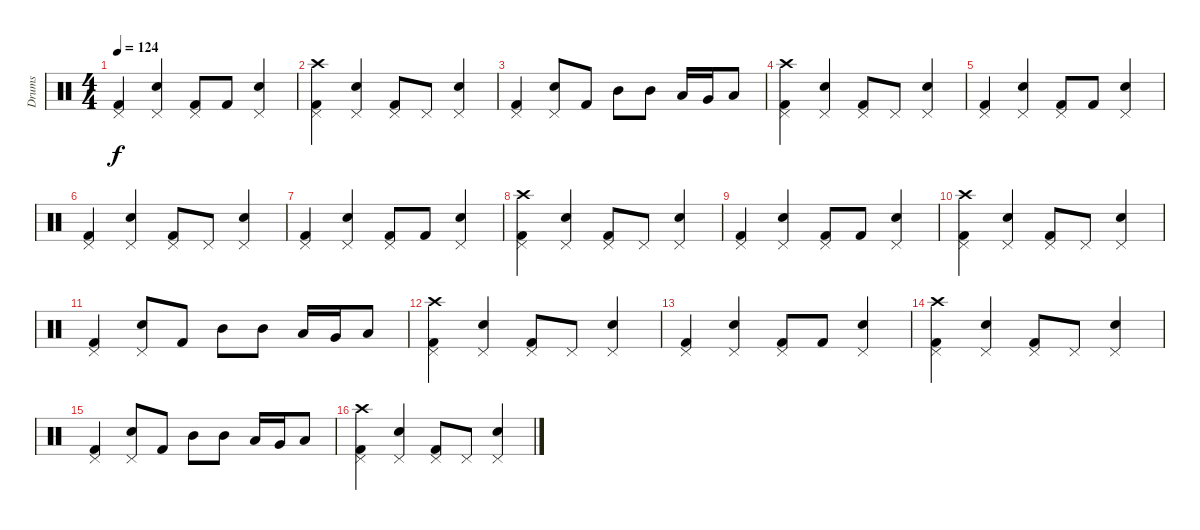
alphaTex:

\track ("Drums" "Drums") {instrument percussion}
\staff {score}
\articulation defaults
\ts (4 4)
\tempo 124
\clef neutral
\ks c
("Kick (hit) 2" "Pedal Hi-Hat (hit)").4{dy f} ("Snare (hit) 2" "Pedal Hi-Hat (hit)").4 ("Kick (hit) 2" "Pedal Hi-Hat (hit)").8 "Kick (hit) 2".8 ("Snare (hit) 2" "Pedal Hi-Hat (hit)").4 |
("Kick (hit) 2" "Pedal Hi-Hat (hit)" "Crash high (hit)").4 ("Snare (hit) 2" "Pedal Hi-Hat (hit)").4 ("Kick (hit) 2" "Pedal Hi-Hat (hit)").8 "Pedal Hi-Hat (hit)".8 ("Snare (hit) 2" "Pedal Hi-Hat (hit)").4 |
("Kick (hit) 2" "Pedal Hi-Hat (hit)").4 ("Snare (hit) 2" "Pedal Hi-Hat (hit)").8 "Kick (hit) 2".8 "Mid Tom (hit)".8 "Mid Tom (hit)".8 "Low Tom (hit)".16 "Very Low Tom (hit)".16 "Low Floor Tom (hit)".8 |
("Kick (hit) 2" "Pedal Hi-Hat (hit)" "Crash high (hit)").4 ("Snare (hit) 2" "Pedal Hi-Hat (hit)").4 ("Kick (hit) 2" "Pedal Hi-Hat (hit)").8 "Pedal Hi-Hat (hit)".8 ("Snare (hit) 2" "Pedal Hi-Hat (hit)").4 |
("Kick (hit) 2" "Pedal Hi-Hat (hit)").4 ("Snare (hit) 2" "Pedal Hi-Hat (hit)").4 ("Kick (hit) 2" "Pedal Hi-Hat (hit)").8 "Kick (hit) 2".8 ("Snare (hit) 2" "Pedal Hi-Hat (hit)").4 |
("Kick (hit) 2" "Pedal Hi-Hat (hit)").4 ("Snare (hit) 2" "Pedal Hi-Hat (hit)").4 ("Kick (hit) 2" "Pedal Hi-Hat (hit)").8 "Pedal Hi-Hat (hit)".8 ("Snare (hit) 2" "Pedal Hi-Hat (hit)").4 |
("Kick (hit) 2" "Pedal Hi-Hat (hit)").4 ("Snare (hit) 2" "Pedal Hi-Hat (hit)").4 ("Kick (hit) 2" "Pedal Hi-Hat (hit)").8 "Kick (hit) 2".8 ("Snare (hit) 2" "Pedal Hi-Hat (hit)").4 |
("Kick (hit) 2" "Pedal Hi-Hat (hit)" "Crash high (hit)").4 ("Snare (hit) 2" "Pedal Hi-Hat (hit)").4 ("Kick (hit) 2" "Pedal Hi-Hat (hit)").8 "Pedal Hi-Hat (hit)".8 ("Snare (hit) 2" "Pedal Hi-Hat (hit)").4 |
("Kick (hit) 2" "Pedal Hi-Hat (hit)").4 ("Snare (hit) 2" "Pedal Hi-Hat (hit)").4 ("Kick (hit) 2" "Pedal Hi-Hat (hit)").8 "Kick (hit) 2".8 ("Snare (hit) 2" "Pedal Hi-Hat (hit)").4 |
("Kick (hit) 2" "Pedal Hi-Hat (hit)" "Crash high (hit)").4 ("Snare (hit) 2" "Pedal Hi-Hat (hit)").4 ("Kick (hit) 2" "Pedal Hi-Hat (hit)").8 "Pedal Hi-Hat (hit)".8 ("Snare (hit) 2" "Pedal Hi-Hat (hit)").4 |
("Kick (hit) 2" "Pedal Hi-Hat (hit)").4 ("Snare (hit) 2" "Pedal Hi-Hat (hit)").8 "Kick (hit) 2".8 "Mid Tom (hit)".8 "Mid Tom (hit)".8 "Low Tom (hit)".16 "Very Low Tom (hit)".16 "Low Floor Tom (hit)".8 |
("Kick (hit) 2" "Pedal Hi-Hat (hit)" "Crash high (hit)").4 ("Snare (hit) 2" "Pedal Hi-Hat (hit)").4 ("Kick (hit) 2" "Pedal Hi-Hat (hit)").8 "Pedal Hi-Hat (hit)".8 ("Snare (hit) 2" "Pedal Hi-Hat (hit)").4 |
("Kick (hit) 2" "Pedal Hi-Hat (hit)").4 ("Snare (hit) 2" "Pedal Hi-Hat (hit)").4 ("Kick (hit) 2" "Pedal Hi-Hat (hit)").8 "Kick (hit) 2".8 ("Snare (hit) 2" "Pedal Hi-Hat (hit)").4 |
("Kick (hit) 2" "Pedal Hi-Hat (hit)" "Crash high (hit)").4 ("Snare (hit) 2" "Pedal Hi-Hat (hit)").4 ("Kick (hit) 2" "Pedal Hi-Hat (hit)").8 "Pedal Hi-Hat (hit)".8 ("Snare (hit) 2" "Pedal Hi-Hat (hit)").4 |
("Kick (hit) 2" "Pedal Hi-Hat (hit)").4 ("Snare (hit) 2" "Pedal Hi-Hat (hit)").8 "Kick (hit) 2".8 "Mid Tom (hit)".8 "Mid Tom (hit)".8 "Low Tom (hit)".16 "Very Low Tom (hit)".16 "Low Floor Tom (hit)".8 |
("Kick (hit) 2" "Pedal Hi-Hat (hit)" "Crash high (hit)").4 ("Snare (hit) 2" "Pedal Hi-Hat (hit)").4 ("Kick (hit) 2" "Pedal Hi-Hat (hit)").8 "Pedal Hi-Hat (hit)".8 ("Snare (hit) 2" "Pedal Hi-Hat (hit)").4
